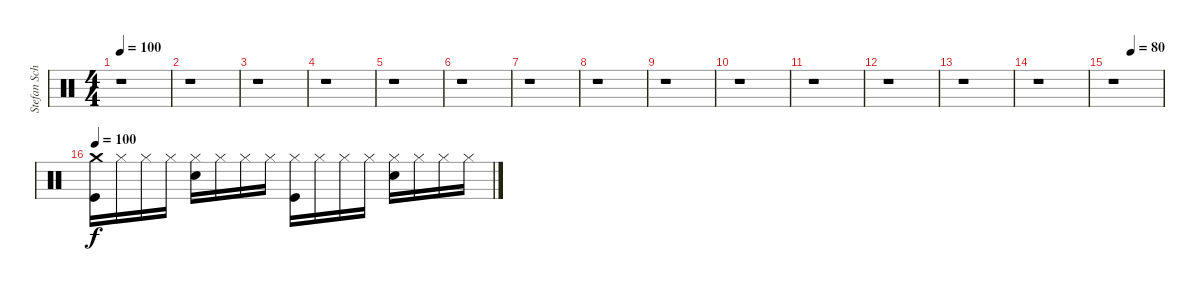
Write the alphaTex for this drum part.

\track ("Stefan Schwarzmann" "Stefan Sch") {instrument percussion}
\staff {score}
\articulation defaults
\ts (4 4)
\tempo 100
\clef neutral
\ks c
r.1{dy f} |
r.1 |
r.1 |
r.1 |
r.1 |
r.1 |
r.1 |
r.1 |
r.1 |
r.1 |
r.1 |
r.1 |
r.1 |
r.1 |
\tempo (80 0.375)
r.1 |
\tempo 100
("Kick (hit)" "Crash medium (hit)").16 "Hi-Hat (closed)".16 "Hi-Hat (closed)".16 "Hi-Hat (closed)".16 ("Snare (hit) 2" "Hi-Hat (closed)").16 "Hi-Hat (closed)".16 "Hi-Hat (closed)".16 "Hi-Hat (closed)".16 ("Kick (hit)" "Hi-Hat (closed)").16 "Hi-Hat (closed)".16 "Hi-Hat (closed)".16 "Hi-Hat (closed)".16 ("Snare (hit) 2" "Hi-Hat (closed)").16 "Hi-Hat (closed)".16 "Hi-Hat (closed)".16 "Hi-Hat (closed)".16
